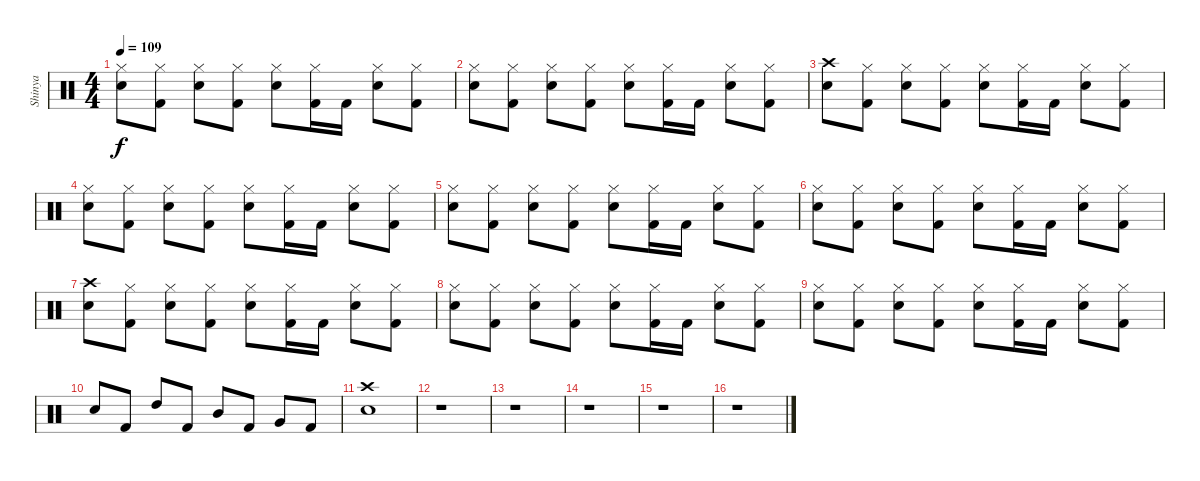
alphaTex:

\track ("Shinya" "Shinya") {instrument percussion}
\staff {score}
\articulation defaults
\ts (4 4)
\tempo 109
\clef neutral
\ks c
("Hi-Hat (closed)" "Snare (hit) 2").8{dy f} ("Hi-Hat (closed)" "Kick (hit) 2").8 ("Hi-Hat (closed)" "Snare (hit) 2").8 ("Hi-Hat (closed)" "Kick (hit) 2").8 ("Hi-Hat (closed)" "Snare (hit) 2").8 ("Hi-Hat (closed)" "Kick (hit) 2").16 "Kick (hit) 2".16 ("Hi-Hat (closed)" "Snare (hit) 2").8 ("Hi-Hat (closed)" "Kick (hit) 2").8 |
("Hi-Hat (closed)" "Snare (hit) 2").8 ("Hi-Hat (closed)" "Kick (hit) 2").8 ("Hi-Hat (closed)" "Snare (hit) 2").8 ("Hi-Hat (closed)" "Kick (hit) 2").8 ("Hi-Hat (closed)" "Snare (hit) 2").8 ("Hi-Hat (closed)" "Kick (hit) 2").16 "Kick (hit) 2".16 ("Hi-Hat (closed)" "Snare (hit) 2").8 ("Hi-Hat (closed)" "Kick (hit) 2").8 |
("Crash high (hit)" "Snare (hit) 2").8 ("Hi-Hat (closed)" "Kick (hit) 2").8 ("Hi-Hat (closed)" "Snare (hit) 2").8 ("Hi-Hat (closed)" "Kick (hit) 2").8 ("Hi-Hat (closed)" "Snare (hit) 2").8 ("Hi-Hat (closed)" "Kick (hit) 2").16 "Kick (hit) 2".16 ("Hi-Hat (closed)" "Snare (hit) 2").8 ("Hi-Hat (closed)" "Kick (hit) 2").8 |
("Hi-Hat (closed)" "Snare (hit) 2").8 ("Hi-Hat (closed)" "Kick (hit) 2").8 ("Hi-Hat (closed)" "Snare (hit) 2").8 ("Hi-Hat (closed)" "Kick (hit) 2").8 ("Hi-Hat (closed)" "Snare (hit) 2").8 ("Hi-Hat (closed)" "Kick (hit) 2").16 "Kick (hit) 2".16 ("Hi-Hat (closed)" "Snare (hit) 2").8 ("Hi-Hat (closed)" "Kick (hit) 2").8 |
("Hi-Hat (closed)" "Snare (hit) 2").8 ("Hi-Hat (closed)" "Kick (hit) 2").8 ("Hi-Hat (closed)" "Snare (hit) 2").8 ("Hi-Hat (closed)" "Kick (hit) 2").8 ("Hi-Hat (closed)" "Snare (hit) 2").8 ("Hi-Hat (closed)" "Kick (hit) 2").16 "Kick (hit) 2".16 ("Hi-Hat (closed)" "Snare (hit) 2").8 ("Hi-Hat (closed)" "Kick (hit) 2").8 |
("Hi-Hat (closed)" "Snare (hit) 2").8 ("Hi-Hat (closed)" "Kick (hit) 2").8 ("Hi-Hat (closed)" "Snare (hit) 2").8 ("Hi-Hat (closed)" "Kick (hit) 2").8 ("Hi-Hat (closed)" "Snare (hit) 2").8 ("Hi-Hat (closed)" "Kick (hit) 2").16 "Kick (hit) 2".16 ("Hi-Hat (closed)" "Snare (hit) 2").8 ("Hi-Hat (closed)" "Kick (hit) 2").8 |
("Crash high (hit)" "Snare (hit) 2").8 ("Hi-Hat (closed)" "Kick (hit) 2").8 ("Hi-Hat (closed)" "Snare (hit) 2").8 ("Hi-Hat (closed)" "Kick (hit) 2").8 ("Hi-Hat (closed)" "Snare (hit) 2").8 ("Hi-Hat (closed)" "Kick (hit) 2").16 "Kick (hit) 2".16 ("Hi-Hat (closed)" "Snare (hit) 2").8 ("Hi-Hat (closed)" "Kick (hit) 2").8 |
("Hi-Hat (closed)" "Snare (hit) 2").8 ("Hi-Hat (closed)" "Kick (hit) 2").8 ("Hi-Hat (closed)" "Snare (hit) 2").8 ("Hi-Hat (closed)" "Kick (hit) 2").8 ("Hi-Hat (closed)" "Snare (hit) 2").8 ("Hi-Hat (closed)" "Kick (hit) 2").16 "Kick (hit) 2".16 ("Hi-Hat (closed)" "Snare (hit) 2").8 ("Hi-Hat (closed)" "Kick (hit) 2").8 |
("Hi-Hat (closed)" "Snare (hit) 2").8 ("Hi-Hat (closed)" "Kick (hit) 2").8 ("Hi-Hat (closed)" "Snare (hit) 2").8 ("Hi-Hat (closed)" "Kick (hit) 2").8 ("Hi-Hat (closed)" "Snare (hit) 2").8 ("Hi-Hat (closed)" "Kick (hit) 2").16 "Kick (hit) 2".16 ("Hi-Hat (closed)" "Snare (hit) 2").8 ("Hi-Hat (closed)" "Kick (hit) 2").8 |
"Snare (hit) 2".8 "Kick (hit) 2".8 "High Tom (hit)".8 "Kick (hit) 2".8 "Mid Tom (hit)".8 "Kick (hit) 2".8 "Very Low Tom (hit)".8 "Kick (hit) 2".8 |
("Crash high (hit)" "Snare (hit) 2").1 |
r.1 |
r.1 |
r.1 |
r.1 |
r.1
